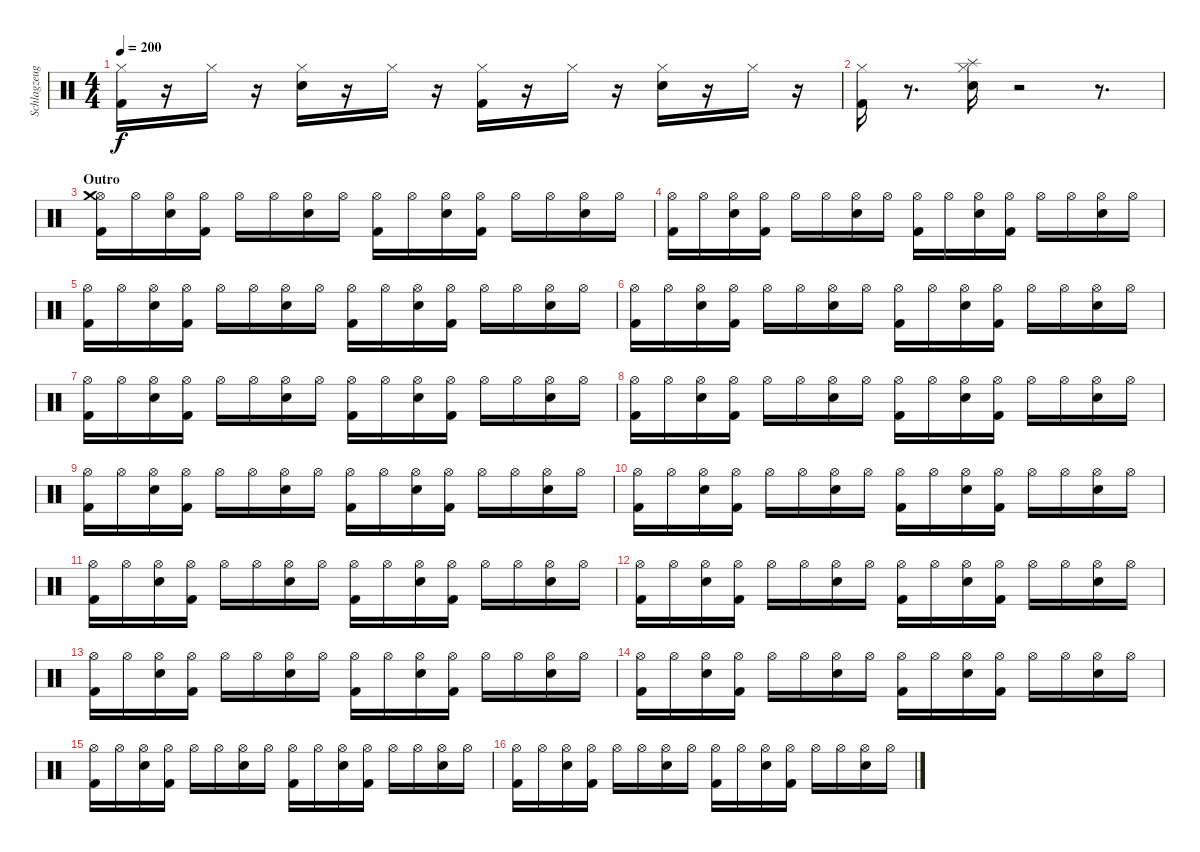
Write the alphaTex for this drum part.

\track ("Schlagzeug - Bela B." "Schlagzeug") {instrument percussion}
\staff {score}
\articulation defaults
\ts (4 4)
\tempo 200
\clef neutral
\ks c
("Kick (hit) 2" "Hi-Hat (closed)").16{dy f} r.16 "Hi-Hat (closed)".16 r.16 ("Hi-Hat (closed)" "Snare (hit) 2").16 r.16 "Hi-Hat (closed)".16 r.16 ("Kick (hit) 2" "Hi-Hat (closed)").16 r.16 "Hi-Hat (closed)".16 r.16 ("Hi-Hat (closed)" "Snare (hit) 2").16 r.16 "Hi-Hat (closed)".16 r.16 |
("Kick (hit) 2" "Hi-Hat (closed)").16 r.8{d} ("Electric Snare (hit)" "Hi-Hat (closed)" "Splash (hit)").16 r.2 r.8{d} |
\section ("" "Outro")
("Kick (hit) 2" "Hi-Hat (open)" "Crash medium (hit)").16 "Hi-Hat (open)".16 ("Electric Snare (hit)" "Hi-Hat (open)").16 ("Hi-Hat (open)" "Kick (hit) 2").16 "Hi-Hat (open)".16 "Hi-Hat (open)".16 ("Electric Snare (hit)" "Hi-Hat (open)").16 "Hi-Hat (open)".16 ("Kick (hit) 2" "Hi-Hat (open)").16 "Hi-Hat (open)".16 ("Electric Snare (hit)" "Hi-Hat (open)").16 ("Hi-Hat (open)" "Kick (hit) 2").16 "Hi-Hat (open)".16 "Hi-Hat (open)".16 ("Electric Snare (hit)" "Hi-Hat (open)").16 "Hi-Hat (open)".16 |
("Kick (hit) 2" "Hi-Hat (open)").16 "Hi-Hat (open)".16 ("Electric Snare (hit)" "Hi-Hat (open)").16 ("Hi-Hat (open)" "Kick (hit) 2").16 "Hi-Hat (open)".16 "Hi-Hat (open)".16 ("Electric Snare (hit)" "Hi-Hat (open)").16 "Hi-Hat (open)".16 ("Kick (hit) 2" "Hi-Hat (open)").16 "Hi-Hat (open)".16 ("Electric Snare (hit)" "Hi-Hat (open)").16 ("Hi-Hat (open)" "Kick (hit) 2").16 "Hi-Hat (open)".16 "Hi-Hat (open)".16 ("Electric Snare (hit)" "Hi-Hat (open)").16 "Hi-Hat (open)".16 |
("Kick (hit) 2" "Hi-Hat (open)").16 "Hi-Hat (open)".16 ("Electric Snare (hit)" "Hi-Hat (open)").16 ("Hi-Hat (open)" "Kick (hit) 2").16 "Hi-Hat (open)".16 "Hi-Hat (open)".16 ("Electric Snare (hit)" "Hi-Hat (open)").16 "Hi-Hat (open)".16 ("Kick (hit) 2" "Hi-Hat (open)").16 "Hi-Hat (open)".16 ("Electric Snare (hit)" "Hi-Hat (open)").16 ("Hi-Hat (open)" "Kick (hit) 2").16 "Hi-Hat (open)".16 "Hi-Hat (open)".16 ("Electric Snare (hit)" "Hi-Hat (open)").16 "Hi-Hat (open)".16 |
("Kick (hit) 2" "Hi-Hat (open)").16 "Hi-Hat (open)".16 ("Electric Snare (hit)" "Hi-Hat (open)").16 ("Hi-Hat (open)" "Kick (hit) 2").16 "Hi-Hat (open)".16 "Hi-Hat (open)".16 ("Electric Snare (hit)" "Hi-Hat (open)").16 "Hi-Hat (open)".16 ("Kick (hit) 2" "Hi-Hat (open)").16 "Hi-Hat (open)".16 ("Electric Snare (hit)" "Hi-Hat (open)").16 ("Hi-Hat (open)" "Kick (hit) 2").16 "Hi-Hat (open)".16 "Hi-Hat (open)".16 ("Electric Snare (hit)" "Hi-Hat (open)").16 "Hi-Hat (open)".16 |
("Kick (hit) 2" "Hi-Hat (open)").16 "Hi-Hat (open)".16 ("Electric Snare (hit)" "Hi-Hat (open)").16 ("Hi-Hat (open)" "Kick (hit) 2").16 "Hi-Hat (open)".16 "Hi-Hat (open)".16 ("Electric Snare (hit)" "Hi-Hat (open)").16 "Hi-Hat (open)".16 ("Kick (hit) 2" "Hi-Hat (open)").16 "Hi-Hat (open)".16 ("Electric Snare (hit)" "Hi-Hat (open)").16 ("Hi-Hat (open)" "Kick (hit) 2").16 "Hi-Hat (open)".16 "Hi-Hat (open)".16 ("Electric Snare (hit)" "Hi-Hat (open)").16 "Hi-Hat (open)".16 |
("Kick (hit) 2" "Hi-Hat (open)").16 "Hi-Hat (open)".16 ("Electric Snare (hit)" "Hi-Hat (open)").16 ("Hi-Hat (open)" "Kick (hit) 2").16 "Hi-Hat (open)".16 "Hi-Hat (open)".16 ("Electric Snare (hit)" "Hi-Hat (open)").16 "Hi-Hat (open)".16 ("Kick (hit) 2" "Hi-Hat (open)").16 "Hi-Hat (open)".16 ("Electric Snare (hit)" "Hi-Hat (open)").16 ("Hi-Hat (open)" "Kick (hit) 2").16 "Hi-Hat (open)".16 "Hi-Hat (open)".16 ("Electric Snare (hit)" "Hi-Hat (open)").16 "Hi-Hat (open)".16 |
("Kick (hit) 2" "Hi-Hat (open)").16 "Hi-Hat (open)".16 ("Electric Snare (hit)" "Hi-Hat (open)").16 ("Hi-Hat (open)" "Kick (hit) 2").16 "Hi-Hat (open)".16 "Hi-Hat (open)".16 ("Electric Snare (hit)" "Hi-Hat (open)").16 "Hi-Hat (open)".16 ("Kick (hit) 2" "Hi-Hat (open)").16 "Hi-Hat (open)".16 ("Electric Snare (hit)" "Hi-Hat (open)").16 ("Hi-Hat (open)" "Kick (hit) 2").16 "Hi-Hat (open)".16 "Hi-Hat (open)".16 ("Electric Snare (hit)" "Hi-Hat (open)").16 "Hi-Hat (open)".16 |
("Kick (hit) 2" "Hi-Hat (open)").16 "Hi-Hat (open)".16 ("Electric Snare (hit)" "Hi-Hat (open)").16 ("Hi-Hat (open)" "Kick (hit) 2").16 "Hi-Hat (open)".16 "Hi-Hat (open)".16 ("Electric Snare (hit)" "Hi-Hat (open)").16 "Hi-Hat (open)".16 ("Kick (hit) 2" "Hi-Hat (open)").16 "Hi-Hat (open)".16 ("Electric Snare (hit)" "Hi-Hat (open)").16 ("Hi-Hat (open)" "Kick (hit) 2").16 "Hi-Hat (open)".16 "Hi-Hat (open)".16 ("Electric Snare (hit)" "Hi-Hat (open)").16 "Hi-Hat (open)".16 |
("Kick (hit) 2" "Hi-Hat (open)").16 "Hi-Hat (open)".16 ("Electric Snare (hit)" "Hi-Hat (open)").16 ("Hi-Hat (open)" "Kick (hit) 2").16 "Hi-Hat (open)".16 "Hi-Hat (open)".16 ("Electric Snare (hit)" "Hi-Hat (open)").16 "Hi-Hat (open)".16 ("Kick (hit) 2" "Hi-Hat (open)").16 "Hi-Hat (open)".16 ("Electric Snare (hit)" "Hi-Hat (open)").16 ("Hi-Hat (open)" "Kick (hit) 2").16 "Hi-Hat (open)".16 "Hi-Hat (open)".16 ("Electric Snare (hit)" "Hi-Hat (open)").16 "Hi-Hat (open)".16 |
("Kick (hit) 2" "Hi-Hat (open)").16 "Hi-Hat (open)".16 ("Electric Snare (hit)" "Hi-Hat (open)").16 ("Hi-Hat (open)" "Kick (hit) 2").16 "Hi-Hat (open)".16 "Hi-Hat (open)".16 ("Electric Snare (hit)" "Hi-Hat (open)").16 "Hi-Hat (open)".16 ("Kick (hit) 2" "Hi-Hat (open)").16 "Hi-Hat (open)".16 ("Electric Snare (hit)" "Hi-Hat (open)").16 ("Hi-Hat (open)" "Kick (hit) 2").16 "Hi-Hat (open)".16 "Hi-Hat (open)".16 ("Electric Snare (hit)" "Hi-Hat (open)").16 "Hi-Hat (open)".16 |
("Kick (hit) 2" "Hi-Hat (open)").16 "Hi-Hat (open)".16 ("Electric Snare (hit)" "Hi-Hat (open)").16 ("Hi-Hat (open)" "Kick (hit) 2").16 "Hi-Hat (open)".16 "Hi-Hat (open)".16 ("Electric Snare (hit)" "Hi-Hat (open)").16 "Hi-Hat (open)".16 ("Kick (hit) 2" "Hi-Hat (open)").16 "Hi-Hat (open)".16 ("Electric Snare (hit)" "Hi-Hat (open)").16 ("Hi-Hat (open)" "Kick (hit) 2").16 "Hi-Hat (open)".16 "Hi-Hat (open)".16 ("Electric Snare (hit)" "Hi-Hat (open)").16 "Hi-Hat (open)".16 |
("Kick (hit) 2" "Hi-Hat (open)").16 "Hi-Hat (open)".16 ("Electric Snare (hit)" "Hi-Hat (open)").16 ("Hi-Hat (open)" "Kick (hit) 2").16 "Hi-Hat (open)".16 "Hi-Hat (open)".16 ("Electric Snare (hit)" "Hi-Hat (open)").16 "Hi-Hat (open)".16 ("Kick (hit) 2" "Hi-Hat (open)").16 "Hi-Hat (open)".16 ("Electric Snare (hit)" "Hi-Hat (open)").16 ("Hi-Hat (open)" "Kick (hit) 2").16 "Hi-Hat (open)".16 "Hi-Hat (open)".16 ("Electric Snare (hit)" "Hi-Hat (open)").16 "Hi-Hat (open)".16 |
("Kick (hit) 2" "Hi-Hat (open)").16 "Hi-Hat (open)".16 ("Electric Snare (hit)" "Hi-Hat (open)").16 ("Hi-Hat (open)" "Kick (hit) 2").16 "Hi-Hat (open)".16 "Hi-Hat (open)".16 ("Electric Snare (hit)" "Hi-Hat (open)").16 "Hi-Hat (open)".16 ("Kick (hit) 2" "Hi-Hat (open)").16 "Hi-Hat (open)".16 ("Electric Snare (hit)" "Hi-Hat (open)").16 ("Hi-Hat (open)" "Kick (hit) 2").16 "Hi-Hat (open)".16 "Hi-Hat (open)".16 ("Electric Snare (hit)" "Hi-Hat (open)").16 "Hi-Hat (open)".16 |
("Kick (hit) 2" "Hi-Hat (open)").16 "Hi-Hat (open)".16 ("Electric Snare (hit)" "Hi-Hat (open)").16 ("Hi-Hat (open)" "Kick (hit) 2").16 "Hi-Hat (open)".16 "Hi-Hat (open)".16 ("Electric Snare (hit)" "Hi-Hat (open)").16 "Hi-Hat (open)".16 ("Kick (hit) 2" "Hi-Hat (open)").16 "Hi-Hat (open)".16 ("Electric Snare (hit)" "Hi-Hat (open)").16 ("Hi-Hat (open)" "Kick (hit) 2").16 "Hi-Hat (open)".16 "Hi-Hat (open)".16 ("Electric Snare (hit)" "Hi-Hat (open)").16 "Hi-Hat (open)".16
